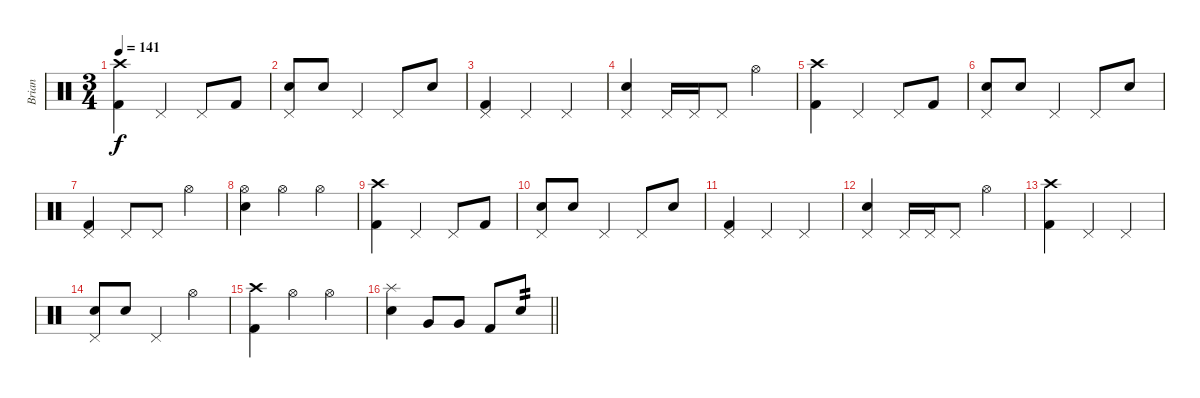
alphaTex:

\track ("Brian" "Brian") {instrument percussion}
\staff {score}
\articulation defaults
\ts (3 4)
\tempo 141
\clef neutral
\ks c
("Crash high (hit)" "Kick (hit) 2").4{dy f} "Pedal Hi-Hat (hit)".4 "Pedal Hi-Hat (hit)".8 "Kick (hit) 2".8 |
("Pedal Hi-Hat (hit)" "Electric Snare (hit)").8 "Electric Snare (hit)".8 "Pedal Hi-Hat (hit)".4 "Pedal Hi-Hat (hit)".8 "Electric Snare (hit)".8 |
("Pedal Hi-Hat (hit)" "Kick (hit) 2").4 "Pedal Hi-Hat (hit)".4 "Pedal Hi-Hat (hit)".4 |
("Pedal Hi-Hat (hit)" "Electric Snare (hit)").4 "Pedal Hi-Hat (hit)".16 "Pedal Hi-Hat (hit)".16 "Pedal Hi-Hat (hit)".8 "Hi-Hat (open)".4 |
("Crash high (hit)" "Kick (hit) 2").4 "Pedal Hi-Hat (hit)".4 "Pedal Hi-Hat (hit)".8 "Kick (hit) 2".8 |
("Pedal Hi-Hat (hit)" "Electric Snare (hit)").8 "Electric Snare (hit)".8 "Pedal Hi-Hat (hit)".4 "Pedal Hi-Hat (hit)".8 "Electric Snare (hit)".8 |
("Pedal Hi-Hat (hit)" "Kick (hit) 2").4 "Pedal Hi-Hat (hit)".8 "Pedal Hi-Hat (hit)".8 "Hi-Hat (open)".4 |
("Hi-Hat (open)" "Electric Snare (hit)").4 "Hi-Hat (open)".4 "Hi-Hat (open)".4 |
("Crash high (hit)" "Kick (hit) 2").4 "Pedal Hi-Hat (hit)".4 "Pedal Hi-Hat (hit)".8 "Kick (hit) 2".8 |
("Pedal Hi-Hat (hit)" "Electric Snare (hit)").8 "Electric Snare (hit)".8 "Pedal Hi-Hat (hit)".4 "Pedal Hi-Hat (hit)".8 "Electric Snare (hit)".8 |
("Pedal Hi-Hat (hit)" "Kick (hit) 2").4 "Pedal Hi-Hat (hit)".4 "Pedal Hi-Hat (hit)".4 |
("Pedal Hi-Hat (hit)" "Electric Snare (hit)").4 "Pedal Hi-Hat (hit)".16 "Pedal Hi-Hat (hit)".16 "Pedal Hi-Hat (hit)".8 "Hi-Hat (open)".4 |
("Crash high (hit)" "Kick (hit) 2").4 "Pedal Hi-Hat (hit)".4 "Pedal Hi-Hat (hit)".4 |
("Pedal Hi-Hat (hit)" "Electric Snare (hit)").8 "Electric Snare (hit)".8 "Pedal Hi-Hat (hit)".4 "Hi-Hat (open)".4 |
("Crash high (hit)" "Kick (hit) 2").4 "Hi-Hat (open)".4 "Hi-Hat (open)".4 |
\barLineRight lightlight
("Splash (hit)" "Electric Snare (hit)").4 "Very Low Tom (hit)".8 "Very Low Tom (hit)".8 "Kick (hit) 2".8 "Electric Snare (hit)".8{tp 2}
